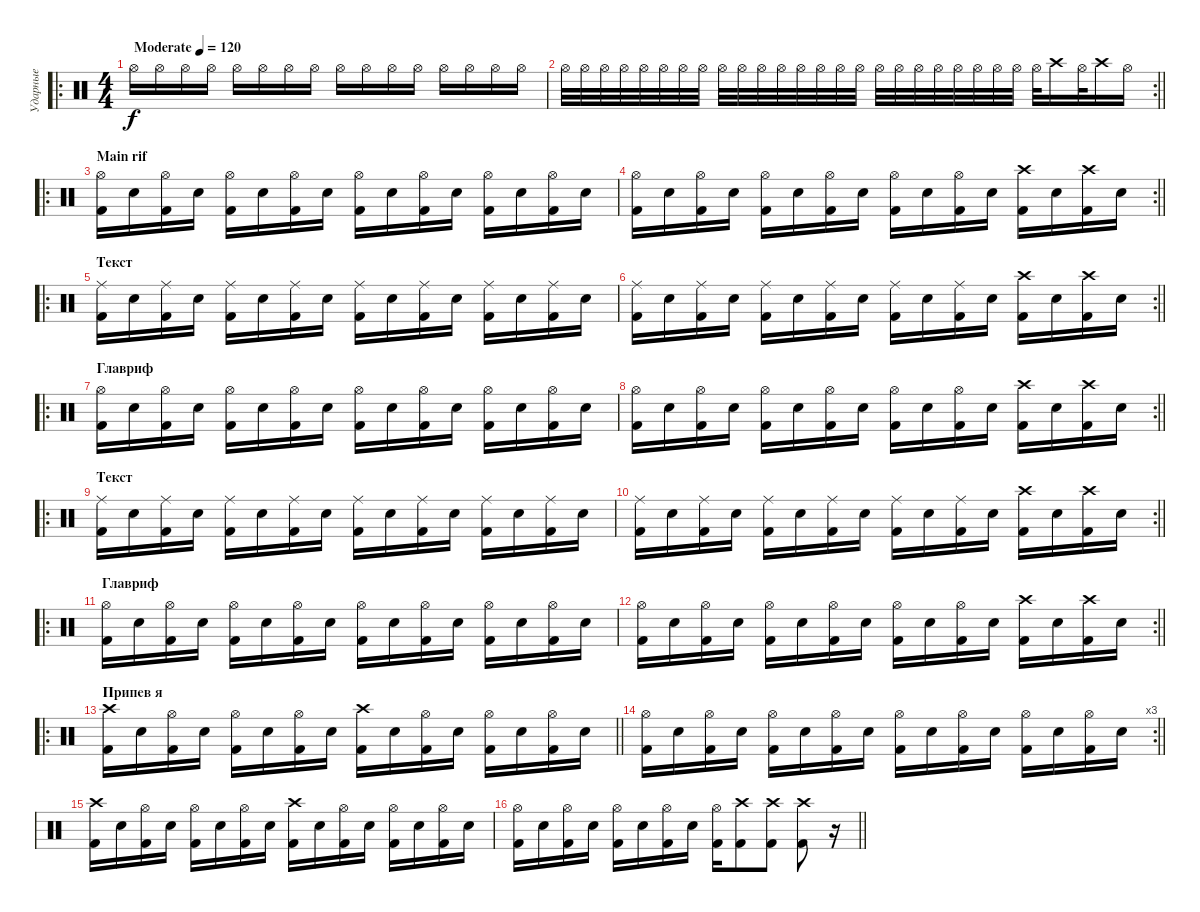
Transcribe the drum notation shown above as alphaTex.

\track ("Ударные" "Ударные") {instrument percussion}
\staff {score}
\articulation defaults
\ro
\ts (4 4)
\tempo (120 "Moderate")
\clef neutral
\ks c "Hi-Hat (open)".16{dy f} "Hi-Hat (open)".16 "Hi-Hat (open)".16 "Hi-Hat (open)".16 "Hi-Hat (open)".16 "Hi-Hat (open)".16 "Hi-Hat (open)".16 "Hi-Hat (open)".16 "Hi-Hat (open)".16 "Hi-Hat (open)".16 "Hi-Hat (open)".16 "Hi-Hat (open)".16 "Hi-Hat (open)".16 "Hi-Hat (open)".16 "Hi-Hat (open)".16 "Hi-Hat (open)".16
|
\rc 2
\barLineRight lightlight "Hi-Hat (open)".32 "Hi-Hat (open)".32 "Hi-Hat (open)".32 "Hi-Hat (open)".32 "Hi-Hat (open)".32 "Hi-Hat (open)".32 "Hi-Hat (open)".32 "Hi-Hat (open)".32 "Hi-Hat (open)".32 "Hi-Hat (open)".32 "Hi-Hat (open)".32 "Hi-Hat (open)".32 "Hi-Hat (open)".32 "Hi-Hat (open)".32 "Hi-Hat (open)".32 "Hi-Hat (open)".32 "Hi-Hat (open)".32 "Hi-Hat (open)".32 "Hi-Hat (open)".32 "Hi-Hat (open)".32 "Hi-Hat (open)".32 "Hi-Hat (open)".32 "Hi-Hat (open)".32 "Hi-Hat (open)".32 "Hi-Hat (open)".32 "Crash high (hit)".16 "Hi-Hat (open)".32 "Crash high (hit)".16 "Hi-Hat (open)".16
|
\ro
\section ("" "Main rif")
("Hi-Hat (open)" "Kick (hit) 2").16 "Snare (hit) 2".16 ("Hi-Hat (open)" "Kick (hit) 2").16 "Snare (hit) 2".16 ("Hi-Hat (open)" "Kick (hit) 2").16 "Snare (hit) 2".16 ("Hi-Hat (open)" "Kick (hit) 2").16 "Snare (hit) 2".16 ("Hi-Hat (open)" "Kick (hit) 2").16 "Snare (hit) 2".16 ("Hi-Hat (open)" "Kick (hit) 2").16 "Snare (hit) 2".16 ("Hi-Hat (open)" "Kick (hit) 2").16 "Snare (hit) 2".16 ("Hi-Hat (open)" "Kick (hit) 2").16 "Snare (hit) 2".16 |
\rc 2
\barLineRight lightlight
("Hi-Hat (open)" "Kick (hit) 2").16 "Snare (hit) 2".16 ("Hi-Hat (open)" "Kick (hit) 2").16 "Snare (hit) 2".16 ("Hi-Hat (open)" "Kick (hit) 2").16 "Snare (hit) 2".16 ("Hi-Hat (open)" "Kick (hit) 2").16 "Snare (hit) 2".16 ("Hi-Hat (open)" "Kick (hit) 2").16 "Snare (hit) 2".16 ("Hi-Hat (open)" "Kick (hit) 2").16 "Snare (hit) 2".16 ("Crash high (hit)" "Kick (hit) 2").16 "Snare (hit) 2".16 ("Crash high (hit)" "Kick (hit) 2").16 "Snare (hit) 2".16 |
\ro
\section ("" "Текст")
("Ride (middle)" "Kick (hit) 2").16 "Snare (hit) 2".16 ("Ride (middle)" "Kick (hit) 2").16 "Snare (hit) 2".16 ("Ride (middle)" "Kick (hit) 2").16 "Snare (hit) 2".16 ("Ride (middle)" "Kick (hit) 2").16 "Snare (hit) 2".16 ("Ride (middle)" "Kick (hit) 2").16 "Snare (hit) 2".16 ("Ride (middle)" "Kick (hit) 2").16 "Snare (hit) 2".16 ("Ride (middle)" "Kick (hit) 2").16 "Snare (hit) 2".16 ("Ride (middle)" "Kick (hit) 2").16 "Snare (hit) 2".16 |
\rc 2
\barLineRight lightlight
("Ride (middle)" "Kick (hit) 2").16 "Snare (hit) 2".16 ("Ride (middle)" "Kick (hit) 2").16 "Snare (hit) 2".16 ("Ride (middle)" "Kick (hit) 2").16 "Snare (hit) 2".16 ("Ride (middle)" "Kick (hit) 2").16 "Snare (hit) 2".16 ("Ride (middle)" "Kick (hit) 2").16 "Snare (hit) 2".16 ("Ride (middle)" "Kick (hit) 2").16 "Snare (hit) 2".16 ("Crash high (hit)" "Kick (hit) 2").16 "Snare (hit) 2".16 ("Crash high (hit)" "Kick (hit) 2").16 "Snare (hit) 2".16 |
\ro
\section ("" "Главриф")
("Hi-Hat (open)" "Kick (hit) 2").16 "Snare (hit) 2".16 ("Hi-Hat (open)" "Kick (hit) 2").16 "Snare (hit) 2".16 ("Hi-Hat (open)" "Kick (hit) 2").16 "Snare (hit) 2".16 ("Hi-Hat (open)" "Kick (hit) 2").16 "Snare (hit) 2".16 ("Hi-Hat (open)" "Kick (hit) 2").16 "Snare (hit) 2".16 ("Hi-Hat (open)" "Kick (hit) 2").16 "Snare (hit) 2".16 ("Hi-Hat (open)" "Kick (hit) 2").16 "Snare (hit) 2".16 ("Hi-Hat (open)" "Kick (hit) 2").16 "Snare (hit) 2".16 |
\rc 2
\barLineRight lightlight
("Hi-Hat (open)" "Kick (hit) 2").16 "Snare (hit) 2".16 ("Hi-Hat (open)" "Kick (hit) 2").16 "Snare (hit) 2".16 ("Hi-Hat (open)" "Kick (hit) 2").16 "Snare (hit) 2".16 ("Hi-Hat (open)" "Kick (hit) 2").16 "Snare (hit) 2".16 ("Hi-Hat (open)" "Kick (hit) 2").16 "Snare (hit) 2".16 ("Hi-Hat (open)" "Kick (hit) 2").16 "Snare (hit) 2".16 ("Crash high (hit)" "Kick (hit) 2").16 "Snare (hit) 2".16 ("Crash high (hit)" "Kick (hit) 2").16 "Snare (hit) 2".16 |
\ro
\section ("" "Текст")
("Ride (middle)" "Kick (hit) 2").16 "Snare (hit) 2".16 ("Ride (middle)" "Kick (hit) 2").16 "Snare (hit) 2".16 ("Ride (middle)" "Kick (hit) 2").16 "Snare (hit) 2".16 ("Ride (middle)" "Kick (hit) 2").16 "Snare (hit) 2".16 ("Ride (middle)" "Kick (hit) 2").16 "Snare (hit) 2".16 ("Ride (middle)" "Kick (hit) 2").16 "Snare (hit) 2".16 ("Ride (middle)" "Kick (hit) 2").16 "Snare (hit) 2".16 ("Ride (middle)" "Kick (hit) 2").16 "Snare (hit) 2".16 |
\rc 2
\barLineRight lightlight
("Ride (middle)" "Kick (hit) 2").16 "Snare (hit) 2".16 ("Ride (middle)" "Kick (hit) 2").16 "Snare (hit) 2".16 ("Ride (middle)" "Kick (hit) 2").16 "Snare (hit) 2".16 ("Ride (middle)" "Kick (hit) 2").16 "Snare (hit) 2".16 ("Ride (middle)" "Kick (hit) 2").16 "Snare (hit) 2".16 ("Ride (middle)" "Kick (hit) 2").16 "Snare (hit) 2".16 ("Crash high (hit)" "Kick (hit) 2").16 "Snare (hit) 2".16 ("Crash high (hit)" "Kick (hit) 2").16 "Snare (hit) 2".16 |
\ro
\section ("" "Главриф")
("Hi-Hat (open)" "Kick (hit) 2").16 "Snare (hit) 2".16 ("Hi-Hat (open)" "Kick (hit) 2").16 "Snare (hit) 2".16 ("Hi-Hat (open)" "Kick (hit) 2").16 "Snare (hit) 2".16 ("Hi-Hat (open)" "Kick (hit) 2").16 "Snare (hit) 2".16 ("Hi-Hat (open)" "Kick (hit) 2").16 "Snare (hit) 2".16 ("Hi-Hat (open)" "Kick (hit) 2").16 "Snare (hit) 2".16 ("Hi-Hat (open)" "Kick (hit) 2").16 "Snare (hit) 2".16 ("Hi-Hat (open)" "Kick (hit) 2").16 "Snare (hit) 2".16 |
\rc 2
\barLineRight lightlight
("Hi-Hat (open)" "Kick (hit) 2").16 "Snare (hit) 2".16 ("Hi-Hat (open)" "Kick (hit) 2").16 "Snare (hit) 2".16 ("Hi-Hat (open)" "Kick (hit) 2").16 "Snare (hit) 2".16 ("Hi-Hat (open)" "Kick (hit) 2").16 "Snare (hit) 2".16 ("Hi-Hat (open)" "Kick (hit) 2").16 "Snare (hit) 2".16 ("Hi-Hat (open)" "Kick (hit) 2").16 "Snare (hit) 2".16 ("Crash high (hit)" "Kick (hit) 2").16 "Snare (hit) 2".16 ("Crash high (hit)" "Kick (hit) 2").16 "Snare (hit) 2".16 |
\ro
\section ("" "Припев я")
\barLineRight lightlight
("Crash high (hit)" "Kick (hit) 2").16 "Snare (hit) 2".16 ("Hi-Hat (open)" "Kick (hit) 2").16 "Snare (hit) 2".16 ("Hi-Hat (open)" "Kick (hit) 2").16 "Snare (hit) 2".16 ("Hi-Hat (open)" "Kick (hit) 2").16 "Snare (hit) 2".16 ("Crash high (hit)" "Kick (hit) 2").16 "Snare (hit) 2".16 ("Hi-Hat (open)" "Kick (hit) 2").16 "Snare (hit) 2".16 ("Hi-Hat (open)" "Kick (hit) 2").16 "Snare (hit) 2".16 ("Hi-Hat (open)" "Kick (hit) 2").16 "Snare (hit) 2".16 |
\rc 3
\section ("" "")
\barLineRight lightlight
("Hi-Hat (open)" "Kick (hit) 2").16 "Snare (hit) 2".16 ("Hi-Hat (open)" "Kick (hit) 2").16 "Snare (hit) 2".16 ("Hi-Hat (open)" "Kick (hit) 2").16 "Snare (hit) 2".16 ("Hi-Hat (open)" "Kick (hit) 2").16 "Snare (hit) 2".16 ("Hi-Hat (open)" "Kick (hit) 2").16 "Snare (hit) 2".16 ("Hi-Hat (open)" "Kick (hit) 2").16 "Snare (hit) 2".16 ("Hi-Hat (open)" "Kick (hit) 2").16 "Snare (hit) 2".16 ("Hi-Hat (open)" "Kick (hit) 2").16 "Snare (hit) 2".16 |
("Crash high (hit)" "Kick (hit) 2").16 "Snare (hit) 2".16 ("Hi-Hat (open)" "Kick (hit) 2").16 "Snare (hit) 2".16 ("Hi-Hat (open)" "Kick (hit) 2").16 "Snare (hit) 2".16 ("Hi-Hat (open)" "Kick (hit) 2").16 "Snare (hit) 2".16 ("Crash high (hit)" "Kick (hit) 2").16 "Snare (hit) 2".16 ("Hi-Hat (open)" "Kick (hit) 2").16 "Snare (hit) 2".16 ("Hi-Hat (open)" "Kick (hit) 2").16 "Snare (hit) 2".16 ("Hi-Hat (open)" "Kick (hit) 2").16 "Snare (hit) 2".16 |
\barLineRight lightlight
("Hi-Hat (open)" "Kick (hit) 2").16 "Snare (hit) 2".16 ("Hi-Hat (open)" "Kick (hit) 2").16 "Snare (hit) 2".16 ("Hi-Hat (open)" "Kick (hit) 2").16 "Snare (hit) 2".16 ("Hi-Hat (open)" "Kick (hit) 2").16 "Snare (hit) 2".16 ("Hi-Hat (open)" "Kick (hit) 2").16 ("Crash high (hit)" "Kick (hit) 2").8 ("Crash high (hit)" "Kick (hit) 2").8 ("Crash high (hit)" "Kick (hit) 2").8 r.16
